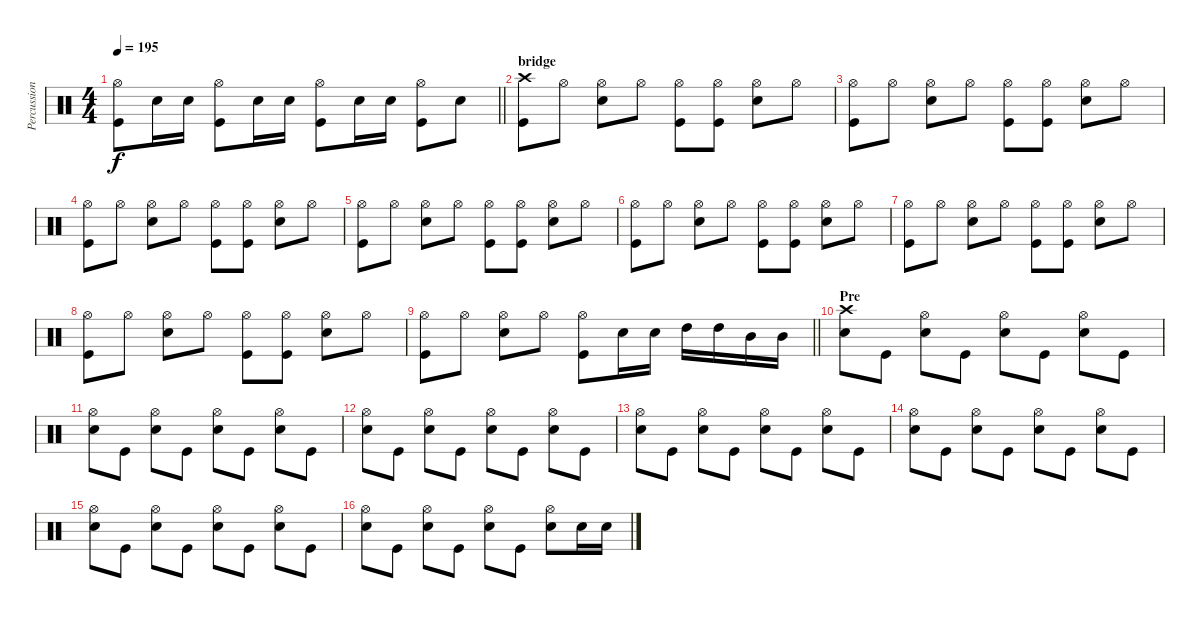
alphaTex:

\track ("Percussion" "Percussion") {instrument percussion}
\staff {score}
\articulation defaults
\ts (4 4)
\tempo 195
\clef neutral
\barLineRight lightlight
\ks c
("Hi-Hat (open)" "Kick (hit)").8{dy f} "Snare (hit) 2".16 "Snare (hit) 2".16 ("Hi-Hat (open)" "Kick (hit)").8 "Snare (hit) 2".16 "Snare (hit) 2".16 ("Hi-Hat (open)" "Kick (hit)").8 "Snare (hit) 2".16 "Snare (hit) 2".16 ("Hi-Hat (open)" "Kick (hit)").8 "Snare (hit) 2".8 |
\section ("" "bridge")
("Crash high (hit)" "Kick (hit)").8 "Hi-Hat (open)".8 ("Hi-Hat (open)" "Snare (hit) 2").8 "Hi-Hat (open)".8 ("Hi-Hat (open)" "Kick (hit)").8 ("Hi-Hat (open)" "Kick (hit)").8 ("Hi-Hat (open)" "Snare (hit) 2").8 "Hi-Hat (open)".8 |
("Hi-Hat (open)" "Kick (hit)").8 "Hi-Hat (open)".8 ("Hi-Hat (open)" "Snare (hit) 2").8 "Hi-Hat (open)".8 ("Hi-Hat (open)" "Kick (hit)").8 ("Hi-Hat (open)" "Kick (hit)").8 ("Hi-Hat (open)" "Snare (hit) 2").8 "Hi-Hat (open)".8 |
("Hi-Hat (open)" "Kick (hit)").8 "Hi-Hat (open)".8 ("Hi-Hat (open)" "Snare (hit) 2").8 "Hi-Hat (open)".8 ("Hi-Hat (open)" "Kick (hit)").8 ("Hi-Hat (open)" "Kick (hit)").8 ("Hi-Hat (open)" "Snare (hit) 2").8 "Hi-Hat (open)".8 |
("Hi-Hat (open)" "Kick (hit)").8 "Hi-Hat (open)".8 ("Hi-Hat (open)" "Snare (hit) 2").8 "Hi-Hat (open)".8 ("Hi-Hat (open)" "Kick (hit)").8 ("Hi-Hat (open)" "Kick (hit)").8 ("Hi-Hat (open)" "Snare (hit) 2").8 "Hi-Hat (open)".8 |
("Hi-Hat (open)" "Kick (hit)").8 "Hi-Hat (open)".8 ("Hi-Hat (open)" "Snare (hit) 2").8 "Hi-Hat (open)".8 ("Hi-Hat (open)" "Kick (hit)").8 ("Hi-Hat (open)" "Kick (hit)").8 ("Hi-Hat (open)" "Snare (hit) 2").8 "Hi-Hat (open)".8 |
("Hi-Hat (open)" "Kick (hit)").8 "Hi-Hat (open)".8 ("Hi-Hat (open)" "Snare (hit) 2").8 "Hi-Hat (open)".8 ("Hi-Hat (open)" "Kick (hit)").8 ("Hi-Hat (open)" "Kick (hit)").8 ("Hi-Hat (open)" "Snare (hit) 2").8 "Hi-Hat (open)".8 |
("Hi-Hat (open)" "Kick (hit)").8 "Hi-Hat (open)".8 ("Hi-Hat (open)" "Snare (hit) 2").8 "Hi-Hat (open)".8 ("Hi-Hat (open)" "Kick (hit)").8 ("Hi-Hat (open)" "Kick (hit)").8 ("Hi-Hat (open)" "Snare (hit) 2").8 "Hi-Hat (open)".8 |
\barLineRight lightlight
("Hi-Hat (open)" "Kick (hit)").8 "Hi-Hat (open)".8 ("Hi-Hat (open)" "Snare (hit) 2").8 "Hi-Hat (open)".8 ("Hi-Hat (open)" "Kick (hit)").8 "Snare (hit) 2".16 "Snare (hit) 2".16 "High Tom (hit)".16 "High Tom (hit)".16 "Mid Tom (hit)".16 "Mid Tom (hit)".16 |
\section ("" "Pre")
("Crash high (hit)" "Snare (hit) 2").8 "Kick (hit)".8 ("Hi-Hat (open)" "Snare (hit) 2").8 "Kick (hit)".8 ("Hi-Hat (open)" "Snare (hit) 2").8 "Kick (hit)".8 ("Hi-Hat (open)" "Snare (hit) 2").8 "Kick (hit)".8 |
("Hi-Hat (open)" "Snare (hit) 2").8 "Kick (hit)".8 ("Hi-Hat (open)" "Snare (hit) 2").8 "Kick (hit)".8 ("Hi-Hat (open)" "Snare (hit) 2").8 "Kick (hit)".8 ("Hi-Hat (open)" "Snare (hit) 2").8 "Kick (hit)".8 |
("Hi-Hat (open)" "Snare (hit) 2").8 "Kick (hit)".8 ("Hi-Hat (open)" "Snare (hit) 2").8 "Kick (hit)".8 ("Hi-Hat (open)" "Snare (hit) 2").8 "Kick (hit)".8 ("Hi-Hat (open)" "Snare (hit) 2").8 "Kick (hit)".8 |
("Hi-Hat (open)" "Snare (hit) 2").8 "Kick (hit)".8 ("Hi-Hat (open)" "Snare (hit) 2").8 "Kick (hit)".8 ("Hi-Hat (open)" "Snare (hit) 2").8 "Kick (hit)".8 ("Hi-Hat (open)" "Snare (hit) 2").8 "Kick (hit)".8 |
("Hi-Hat (open)" "Snare (hit) 2").8 "Kick (hit)".8 ("Hi-Hat (open)" "Snare (hit) 2").8 "Kick (hit)".8 ("Hi-Hat (open)" "Snare (hit) 2").8 "Kick (hit)".8 ("Hi-Hat (open)" "Snare (hit) 2").8 "Kick (hit)".8 |
("Hi-Hat (open)" "Snare (hit) 2").8 "Kick (hit)".8 ("Hi-Hat (open)" "Snare (hit) 2").8 "Kick (hit)".8 ("Hi-Hat (open)" "Snare (hit) 2").8 "Kick (hit)".8 ("Hi-Hat (open)" "Snare (hit) 2").8 "Kick (hit)".8 |
("Hi-Hat (open)" "Snare (hit) 2").8 "Kick (hit)".8 ("Hi-Hat (open)" "Snare (hit) 2").8 "Kick (hit)".8 ("Hi-Hat (open)" "Snare (hit) 2").8 "Kick (hit)".8 ("Hi-Hat (open)" "Snare (hit) 2").8 "Snare (hit) 2".16 "Snare (hit) 2".16
